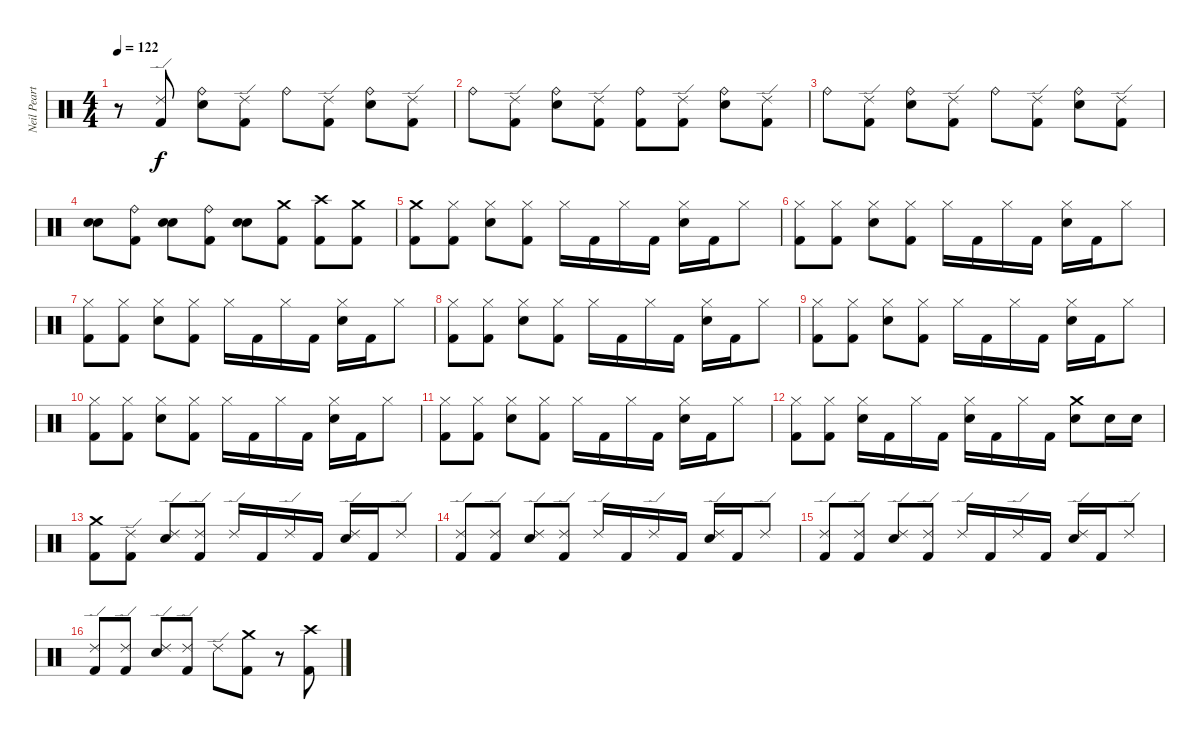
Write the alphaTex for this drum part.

\track ("Neil Peart" "Neil Peart") {instrument percussion}
\staff {score}
\articulation defaults
\ts (4 4)
\tempo 122
\clef neutral
\ks c
r.8{dy f} ("Ride (edge) 2" "Kick (hit) 2").8 ("Snare (hit) 2" "Ride (bell)").8 ("Kick (hit) 2" "Ride (edge) 2").8 "Ride (bell)".8 ("Ride (edge) 2" "Kick (hit) 2").8 ("Ride (bell)" "Snare (hit) 2").8 ("Ride (edge) 2" "Kick (hit) 2").8 |
"Ride (bell)".8 ("Ride (edge) 2" "Kick (hit) 2").8 ("Ride (bell)" "Snare (hit) 2").8 ("Ride (edge) 2" "Kick (hit) 2").8 ("Kick (hit) 2" "Ride (bell)").8 ("Kick (hit) 2" "Ride (edge) 2").8 ("Snare (hit) 2" "Ride (bell)").8 ("Ride (edge) 2" "Kick (hit) 2").8 |
"Ride (bell)".8 ("Kick (hit) 2" "Ride (edge) 2").8 ("Snare (hit) 2" "Ride (bell)").8 ("Kick (hit) 2" "Ride (edge) 2").8 "Ride (bell)".8 ("Kick (hit) 2" "Ride (edge) 2").8 ("Ride (bell)" "Snare (hit) 2").8 ("Kick (hit) 2" "Ride (edge) 2").8 |
("Snare (hit) 2" "Snare (hit) 2").8 ("Ride (bell)" "Kick (hit) 2").8 ("Snare (hit) 2" "Snare (hit) 2").8 ("Ride (bell)" "Kick (hit) 2").8 ("Snare (hit) 2" "Snare (hit) 2").8 ("Kick (hit) 2" "Crash medium (hit)").8 ("Kick (hit) 2" "Crash high (hit)").8 ("Kick (hit) 2" "Crash medium (hit)").8 |
("Kick (hit) 2" "Crash medium (hit)").8 ("Hi-Hat (closed)" "Kick (hit) 2").8 ("Snare (hit) 2" "Hi-Hat (closed)").8 ("Kick (hit) 2" "Hi-Hat (closed)").8 "Hi-Hat (closed)".16 "Kick (hit) 2".16 "Hi-Hat (closed)".16 "Kick (hit) 2".16 ("Snare (hit) 2" "Hi-Hat (closed)").16 "Kick (hit) 2".16 "Hi-Hat (closed)".8 |
("Kick (hit) 2" "Hi-Hat (closed)").8 ("Hi-Hat (closed)" "Kick (hit) 2").8 ("Snare (hit) 2" "Hi-Hat (closed)").8 ("Hi-Hat (closed)" "Kick (hit) 2").8 "Hi-Hat (closed)".16 "Kick (hit) 2".16 "Hi-Hat (closed)".16 "Kick (hit) 2".16 ("Hi-Hat (closed)" "Snare (hit) 2").16 "Kick (hit) 2".16 "Hi-Hat (closed)".8 |
("Kick (hit) 2" "Hi-Hat (closed)").8 ("Kick (hit) 2" "Hi-Hat (closed)").8 ("Snare (hit) 2" "Hi-Hat (closed)").8 ("Kick (hit) 2" "Hi-Hat (closed)").8 "Hi-Hat (closed)".16 "Kick (hit) 2".16 "Hi-Hat (closed)".16 "Kick (hit) 2".16 ("Snare (hit) 2" "Hi-Hat (closed)").16 "Kick (hit) 2".16 "Hi-Hat (closed)".8 |
("Kick (hit) 2" "Hi-Hat (closed)").8 ("Kick (hit) 2" "Hi-Hat (closed)").8 ("Snare (hit) 2" "Hi-Hat (closed)").8 ("Hi-Hat (closed)" "Kick (hit) 2").8 "Hi-Hat (closed)".16 "Kick (hit) 2".16 "Hi-Hat (closed)".16 "Kick (hit) 2".16 ("Snare (hit) 2" "Hi-Hat (closed)").16 "Kick (hit) 2".16 "Hi-Hat (closed)".8 |
("Kick (hit) 2" "Hi-Hat (closed)").8 ("Kick (hit) 2" "Hi-Hat (closed)").8 ("Hi-Hat (closed)" "Snare (hit) 2").8 ("Kick (hit) 2" "Hi-Hat (closed)").8 "Hi-Hat (closed)".16 "Kick (hit) 2".16 "Hi-Hat (closed)".16 "Kick (hit) 2".16 ("Snare (hit) 2" "Hi-Hat (closed)").16 "Kick (hit) 2".16 "Hi-Hat (closed)".8 |
("Kick (hit) 2" "Hi-Hat (closed)").8 ("Hi-Hat (closed)" "Kick (hit) 2").8 ("Snare (hit) 2" "Hi-Hat (closed)").8 ("Kick (hit) 2" "Hi-Hat (closed)").8 "Hi-Hat (closed)".16 "Kick (hit) 2".16 "Hi-Hat (closed)".16 "Kick (hit) 2".16 ("Hi-Hat (closed)" "Snare (hit) 2").16 "Kick (hit) 2".16 "Hi-Hat (closed)".8 |
("Hi-Hat (closed)" "Kick (hit) 2").8 ("Kick (hit) 2" "Hi-Hat (closed)").8 ("Snare (hit) 2" "Hi-Hat (closed)").8 ("Hi-Hat (closed)" "Kick (hit) 2").8 "Hi-Hat (closed)".16 "Kick (hit) 2".16 "Hi-Hat (closed)".16 "Kick (hit) 2".16 ("Snare (hit) 2" "Hi-Hat (closed)").16 "Kick (hit) 2".16 "Hi-Hat (closed)".8 |
("Hi-Hat (closed)" "Kick (hit) 2").8 ("Hi-Hat (closed)" "Kick (hit) 2").8 ("Snare (hit) 2" "Hi-Hat (closed)").16 "Kick (hit) 2".16 "Hi-Hat (closed)".16 "Kick (hit) 2".16 ("Snare (hit) 2" "Hi-Hat (closed)").16 "Kick (hit) 2".16 "Hi-Hat (closed)".16 "Kick (hit) 2".16 ("Snare (hit) 2" "Crash medium (hit)").8 "Snare (hit) 2".16 "Snare (hit) 2".16 |
("Kick (hit) 2" "Crash medium (hit)").8 ("Ride (edge) 2" "Kick (hit) 2").8 ("Snare (hit) 2" "Ride (edge) 2").8 ("Ride (edge) 2" "Kick (hit) 2").8 "Ride (edge) 2".16 "Kick (hit) 2".16 "Ride (edge) 2".16 "Kick (hit) 2".16 ("Snare (hit) 2" "Ride (edge) 2").16 "Kick (hit) 2".16 "Ride (edge) 2".8 |
("Ride (edge) 2" "Kick (hit) 2").8 ("Kick (hit) 2" "Ride (edge) 2").8 ("Ride (edge) 2" "Snare (hit) 2").8 ("Kick (hit) 2" "Ride (edge) 2").8 "Ride (edge) 2".16 "Kick (hit) 2".16 "Ride (edge) 2".16 "Kick (hit) 2".16 ("Snare (hit) 2" "Ride (edge) 2").16 "Kick (hit) 2".16 "Ride (edge) 2".8 |
("Ride (edge) 2" "Kick (hit) 2").8 ("Kick (hit) 2" "Ride (edge) 2").8 ("Ride (edge) 2" "Snare (hit) 2").8 ("Ride (edge) 2" "Kick (hit) 2").8 "Ride (edge) 2".16 "Kick (hit) 2".16 "Ride (edge) 2".16 "Kick (hit) 2".16 ("Snare (hit) 2" "Ride (edge) 2").16 "Kick (hit) 2".16 "Ride (edge) 2".8 |
("Ride (edge) 2" "Kick (hit) 2").8 ("Kick (hit) 2" "Ride (edge) 2").8 ("Snare (hit) 2" "Ride (edge) 2").8 ("Ride (edge) 2" "Kick (hit) 2").8 "Ride (edge) 2".8 ("Crash medium (hit)" "Kick (hit) 2").8 r.8 ("Kick (hit) 2" "Crash high (hit)").8
